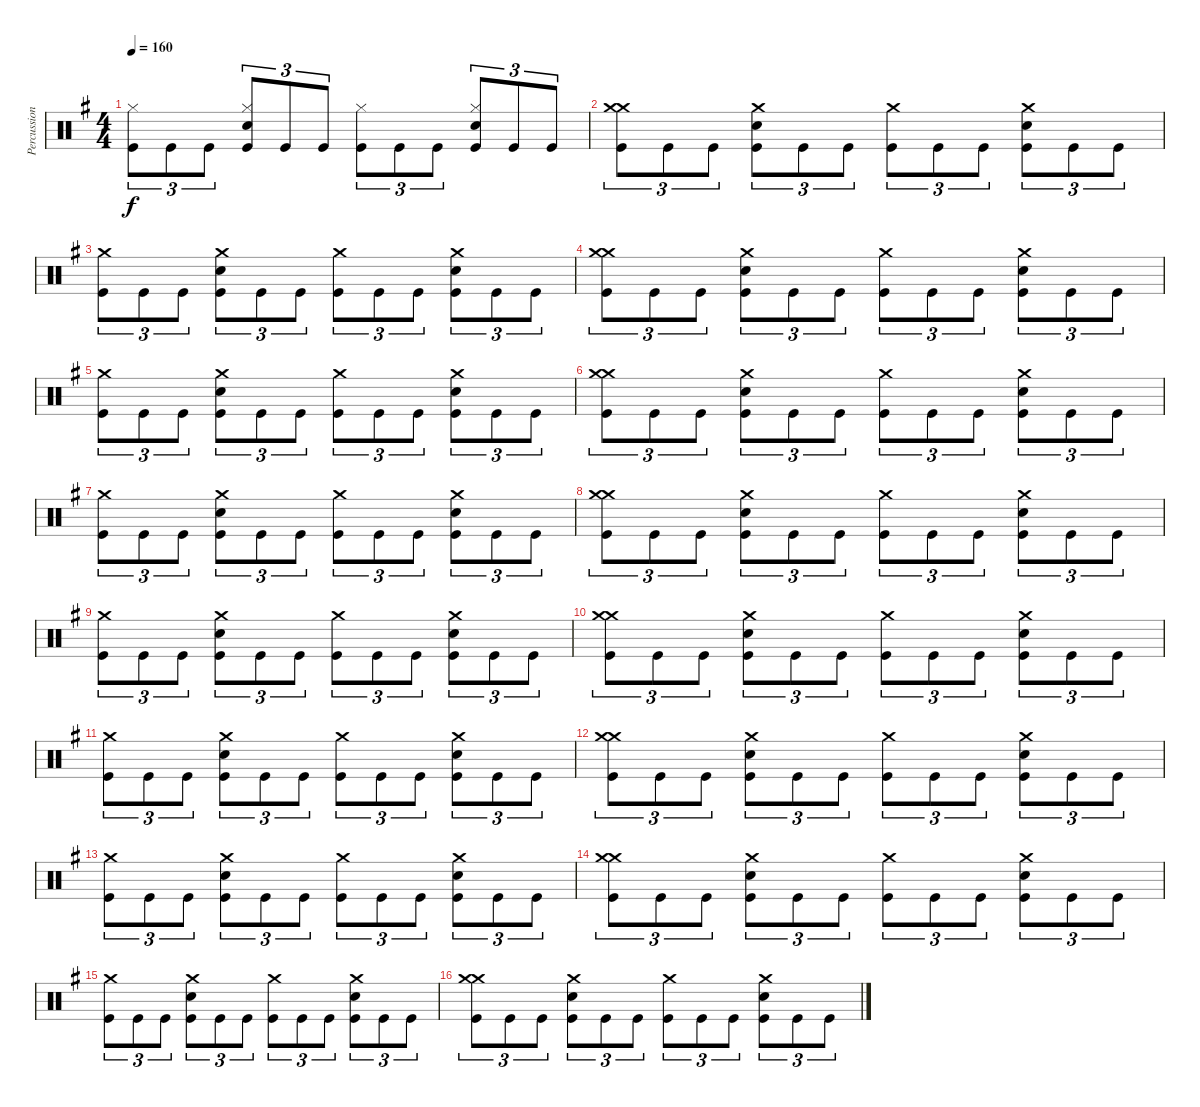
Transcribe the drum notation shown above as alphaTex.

\track ("Percussions" "Percussion") {instrument percussion}
\staff {score}
\articulation defaults
\ts (4 4)
\tempo 160
\clef neutral
\ks g
("Kick (hit)" "Hi-Hat (closed)").8{tu (3 2) dy f} "Kick (hit)".8{tu (3 2)} "Kick (hit)".8{tu (3 2)} ("Kick (hit)" "Electric Snare (hit)" "Hi-Hat (closed)").8{tu (3 2)} "Kick (hit)".8{tu (3 2)} "Kick (hit)".8{tu (3 2)} ("Kick (hit)" "Hi-Hat (closed)").8{tu (3 2)} "Kick (hit)".8{tu (3 2)} "Kick (hit)".8{tu (3 2)} ("Kick (hit)" "Electric Snare (hit)" "Hi-Hat (closed)").8{tu (3 2)} "Kick (hit)".8{tu (3 2)} "Kick (hit)".8{tu (3 2)} |
("Kick (hit)" "Crash medium (hit)" "Crash medium (hit)").8{tu (3 2)} "Kick (hit)".8{tu (3 2)} "Kick (hit)".8{tu (3 2)} ("Kick (hit)" "Electric Snare (hit)" "Crash medium (hit)").8{tu (3 2)} "Kick (hit)".8{tu (3 2)} "Kick (hit)".8{tu (3 2)} ("Kick (hit)" "Crash medium (hit)").8{tu (3 2)} "Kick (hit)".8{tu (3 2)} "Kick (hit)".8{tu (3 2)} ("Kick (hit)" "Electric Snare (hit)" "Crash medium (hit)").8{tu (3 2)} "Kick (hit)".8{tu (3 2)} "Kick (hit)".8{tu (3 2)} |
("Kick (hit)" "Crash medium (hit)").8{tu (3 2)} "Kick (hit)".8{tu (3 2)} "Kick (hit)".8{tu (3 2)} ("Kick (hit)" "Electric Snare (hit)" "Crash medium (hit)").8{tu (3 2)} "Kick (hit)".8{tu (3 2)} "Kick (hit)".8{tu (3 2)} ("Kick (hit)" "Crash medium (hit)").8{tu (3 2)} "Kick (hit)".8{tu (3 2)} "Kick (hit)".8{tu (3 2)} ("Kick (hit)" "Electric Snare (hit)" "Crash medium (hit)").8{tu (3 2)} "Kick (hit)".8{tu (3 2)} "Kick (hit)".8{tu (3 2)} |
("Kick (hit)" "Crash medium (hit)" "Crash medium (hit)").8{tu (3 2)} "Kick (hit)".8{tu (3 2)} "Kick (hit)".8{tu (3 2)} ("Kick (hit)" "Electric Snare (hit)" "Crash medium (hit)").8{tu (3 2)} "Kick (hit)".8{tu (3 2)} "Kick (hit)".8{tu (3 2)} ("Kick (hit)" "Crash medium (hit)").8{tu (3 2)} "Kick (hit)".8{tu (3 2)} "Kick (hit)".8{tu (3 2)} ("Kick (hit)" "Electric Snare (hit)" "Crash medium (hit)").8{tu (3 2)} "Kick (hit)".8{tu (3 2)} "Kick (hit)".8{tu (3 2)} |
("Kick (hit)" "Crash medium (hit)").8{tu (3 2)} "Kick (hit)".8{tu (3 2)} "Kick (hit)".8{tu (3 2)} ("Kick (hit)" "Electric Snare (hit)" "Crash medium (hit)").8{tu (3 2)} "Kick (hit)".8{tu (3 2)} "Kick (hit)".8{tu (3 2)} ("Kick (hit)" "Crash medium (hit)").8{tu (3 2)} "Kick (hit)".8{tu (3 2)} "Kick (hit)".8{tu (3 2)} ("Kick (hit)" "Electric Snare (hit)" "Crash medium (hit)").8{tu (3 2)} "Kick (hit)".8{tu (3 2)} "Kick (hit)".8{tu (3 2)} |
("Kick (hit)" "Crash medium (hit)" "Crash medium (hit)").8{tu (3 2)} "Kick (hit)".8{tu (3 2)} "Kick (hit)".8{tu (3 2)} ("Kick (hit)" "Electric Snare (hit)" "Crash medium (hit)").8{tu (3 2)} "Kick (hit)".8{tu (3 2)} "Kick (hit)".8{tu (3 2)} ("Kick (hit)" "Crash medium (hit)").8{tu (3 2)} "Kick (hit)".8{tu (3 2)} "Kick (hit)".8{tu (3 2)} ("Kick (hit)" "Electric Snare (hit)" "Crash medium (hit)").8{tu (3 2)} "Kick (hit)".8{tu (3 2)} "Kick (hit)".8{tu (3 2)} |
("Kick (hit)" "Crash medium (hit)").8{tu (3 2)} "Kick (hit)".8{tu (3 2)} "Kick (hit)".8{tu (3 2)} ("Kick (hit)" "Electric Snare (hit)" "Crash medium (hit)").8{tu (3 2)} "Kick (hit)".8{tu (3 2)} "Kick (hit)".8{tu (3 2)} ("Kick (hit)" "Crash medium (hit)").8{tu (3 2)} "Kick (hit)".8{tu (3 2)} "Kick (hit)".8{tu (3 2)} ("Kick (hit)" "Electric Snare (hit)" "Crash medium (hit)").8{tu (3 2)} "Kick (hit)".8{tu (3 2)} "Kick (hit)".8{tu (3 2)} |
("Kick (hit)" "Crash medium (hit)" "Crash medium (hit)").8{tu (3 2)} "Kick (hit)".8{tu (3 2)} "Kick (hit)".8{tu (3 2)} ("Kick (hit)" "Electric Snare (hit)" "Crash medium (hit)").8{tu (3 2)} "Kick (hit)".8{tu (3 2)} "Kick (hit)".8{tu (3 2)} ("Kick (hit)" "Crash medium (hit)").8{tu (3 2)} "Kick (hit)".8{tu (3 2)} "Kick (hit)".8{tu (3 2)} ("Kick (hit)" "Electric Snare (hit)" "Crash medium (hit)").8{tu (3 2)} "Kick (hit)".8{tu (3 2)} "Kick (hit)".8{tu (3 2)} |
("Kick (hit)" "Crash medium (hit)").8{tu (3 2)} "Kick (hit)".8{tu (3 2)} "Kick (hit)".8{tu (3 2)} ("Kick (hit)" "Electric Snare (hit)" "Crash medium (hit)").8{tu (3 2)} "Kick (hit)".8{tu (3 2)} "Kick (hit)".8{tu (3 2)} ("Kick (hit)" "Crash medium (hit)").8{tu (3 2)} "Kick (hit)".8{tu (3 2)} "Kick (hit)".8{tu (3 2)} ("Kick (hit)" "Electric Snare (hit)" "Crash medium (hit)").8{tu (3 2)} "Kick (hit)".8{tu (3 2)} "Kick (hit)".8{tu (3 2)} |
("Kick (hit)" "Crash medium (hit)" "Crash medium (hit)").8{tu (3 2)} "Kick (hit)".8{tu (3 2)} "Kick (hit)".8{tu (3 2)} ("Kick (hit)" "Electric Snare (hit)" "Crash medium (hit)").8{tu (3 2)} "Kick (hit)".8{tu (3 2)} "Kick (hit)".8{tu (3 2)} ("Kick (hit)" "Crash medium (hit)").8{tu (3 2)} "Kick (hit)".8{tu (3 2)} "Kick (hit)".8{tu (3 2)} ("Kick (hit)" "Electric Snare (hit)" "Crash medium (hit)").8{tu (3 2)} "Kick (hit)".8{tu (3 2)} "Kick (hit)".8{tu (3 2)} |
("Kick (hit)" "Crash medium (hit)").8{tu (3 2)} "Kick (hit)".8{tu (3 2)} "Kick (hit)".8{tu (3 2)} ("Kick (hit)" "Electric Snare (hit)" "Crash medium (hit)").8{tu (3 2)} "Kick (hit)".8{tu (3 2)} "Kick (hit)".8{tu (3 2)} ("Kick (hit)" "Crash medium (hit)").8{tu (3 2)} "Kick (hit)".8{tu (3 2)} "Kick (hit)".8{tu (3 2)} ("Kick (hit)" "Electric Snare (hit)" "Crash medium (hit)").8{tu (3 2)} "Kick (hit)".8{tu (3 2)} "Kick (hit)".8{tu (3 2)} |
("Kick (hit)" "Crash medium (hit)" "Crash medium (hit)").8{tu (3 2)} "Kick (hit)".8{tu (3 2)} "Kick (hit)".8{tu (3 2)} ("Kick (hit)" "Electric Snare (hit)" "Crash medium (hit)").8{tu (3 2)} "Kick (hit)".8{tu (3 2)} "Kick (hit)".8{tu (3 2)} ("Kick (hit)" "Crash medium (hit)").8{tu (3 2)} "Kick (hit)".8{tu (3 2)} "Kick (hit)".8{tu (3 2)} ("Kick (hit)" "Electric Snare (hit)" "Crash medium (hit)").8{tu (3 2)} "Kick (hit)".8{tu (3 2)} "Kick (hit)".8{tu (3 2)} |
("Kick (hit)" "Crash medium (hit)").8{tu (3 2)} "Kick (hit)".8{tu (3 2)} "Kick (hit)".8{tu (3 2)} ("Kick (hit)" "Electric Snare (hit)" "Crash medium (hit)").8{tu (3 2)} "Kick (hit)".8{tu (3 2)} "Kick (hit)".8{tu (3 2)} ("Kick (hit)" "Crash medium (hit)").8{tu (3 2)} "Kick (hit)".8{tu (3 2)} "Kick (hit)".8{tu (3 2)} ("Kick (hit)" "Electric Snare (hit)" "Crash medium (hit)").8{tu (3 2)} "Kick (hit)".8{tu (3 2)} "Kick (hit)".8{tu (3 2)} |
("Kick (hit)" "Crash medium (hit)" "Crash medium (hit)").8{tu (3 2)} "Kick (hit)".8{tu (3 2)} "Kick (hit)".8{tu (3 2)} ("Kick (hit)" "Electric Snare (hit)" "Crash medium (hit)").8{tu (3 2)} "Kick (hit)".8{tu (3 2)} "Kick (hit)".8{tu (3 2)} ("Kick (hit)" "Crash medium (hit)").8{tu (3 2)} "Kick (hit)".8{tu (3 2)} "Kick (hit)".8{tu (3 2)} ("Kick (hit)" "Electric Snare (hit)" "Crash medium (hit)").8{tu (3 2)} "Kick (hit)".8{tu (3 2)} "Kick (hit)".8{tu (3 2)} |
("Kick (hit)" "Crash medium (hit)").8{tu (3 2)} "Kick (hit)".8{tu (3 2)} "Kick (hit)".8{tu (3 2)} ("Kick (hit)" "Electric Snare (hit)" "Crash medium (hit)").8{tu (3 2)} "Kick (hit)".8{tu (3 2)} "Kick (hit)".8{tu (3 2)} ("Kick (hit)" "Crash medium (hit)").8{tu (3 2)} "Kick (hit)".8{tu (3 2)} "Kick (hit)".8{tu (3 2)} ("Kick (hit)" "Electric Snare (hit)" "Crash medium (hit)").8{tu (3 2)} "Kick (hit)".8{tu (3 2)} "Kick (hit)".8{tu (3 2)} |
("Kick (hit)" "Crash medium (hit)" "Crash medium (hit)").8{tu (3 2)} "Kick (hit)".8{tu (3 2)} "Kick (hit)".8{tu (3 2)} ("Kick (hit)" "Electric Snare (hit)" "Crash medium (hit)").8{tu (3 2)} "Kick (hit)".8{tu (3 2)} "Kick (hit)".8{tu (3 2)} ("Kick (hit)" "Crash medium (hit)").8{tu (3 2)} "Kick (hit)".8{tu (3 2)} "Kick (hit)".8{tu (3 2)} ("Kick (hit)" "Electric Snare (hit)" "Crash medium (hit)").8{tu (3 2)} "Kick (hit)".8{tu (3 2)} "Kick (hit)".8{tu (3 2)}
